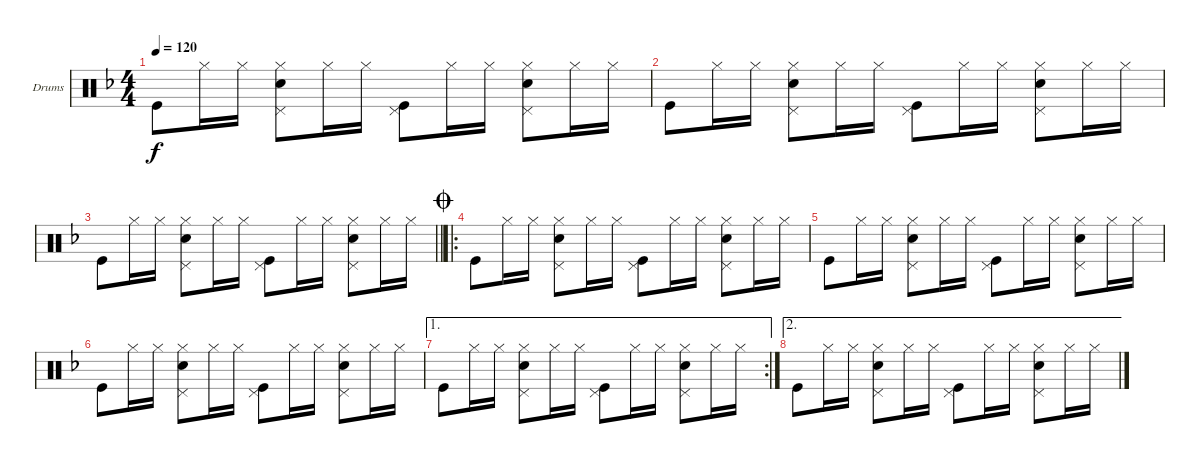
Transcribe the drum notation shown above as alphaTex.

\defaultSystemsLayout 4
\bracketExtendMode groupsimilarinstruments
\firstSystemTrackNameOrientation horizontal
\otherSystemsTrackNameOrientation horizontal
\track ("Drumkit" "Drums") {instrument percussion}
\staff {score}
\articulation defaults
\ts (4 4)
\tempo 120
\clef neutral
\ks f "Kick (hit)".8{dy f} "Hi-Hat (closed)".16 "Hi-Hat (closed)".16
("Snare (hit) 2" "Pedal Hi-Hat (hit)" "Hi-Hat (closed)").8 "Hi-Hat (closed)".16 "Hi-Hat (closed)".16 ("Kick (hit)" "Pedal Hi-Hat (hit)").8 "Hi-Hat (closed)".16 "Hi-Hat (closed)".16 ("Snare (hit) 2" "Pedal Hi-Hat (hit)" "Hi-Hat (closed)").8 "Hi-Hat (closed)".16 "Hi-Hat (closed)".16 |
"Kick (hit)".8 "Hi-Hat (closed)".16 "Hi-Hat (closed)".16 ("Snare (hit) 2" "Pedal Hi-Hat (hit)" "Hi-Hat (closed)").8 "Hi-Hat (closed)".16 "Hi-Hat (closed)".16 ("Kick (hit)" "Pedal Hi-Hat (hit)").8 "Hi-Hat (closed)".16 "Hi-Hat (closed)".16 ("Snare (hit) 2" "Pedal Hi-Hat (hit)" "Hi-Hat (closed)").8 "Hi-Hat (closed)".16 "Hi-Hat (closed)".16 |
\barLineRight lightlight "Kick (hit)".8 "Hi-Hat (closed)".16 "Hi-Hat (closed)".16
("Snare (hit) 2" "Pedal Hi-Hat (hit)" "Hi-Hat (closed)").8 "Hi-Hat (closed)".16 "Hi-Hat (closed)".16 ("Kick (hit)" "Pedal Hi-Hat (hit)").8 "Hi-Hat (closed)".16 "Hi-Hat (closed)".16 ("Snare (hit) 2" "Pedal Hi-Hat (hit)" "Hi-Hat (closed)").8 "Hi-Hat (closed)".16 "Hi-Hat (closed)".16 |
\ro
\jump coda "Kick (hit)".8 "Hi-Hat (closed)".16 "Hi-Hat (closed)".16
("Snare (hit) 2" "Pedal Hi-Hat (hit)" "Hi-Hat (closed)").8 "Hi-Hat (closed)".16 "Hi-Hat (closed)".16 ("Kick (hit)" "Pedal Hi-Hat (hit)").8 "Hi-Hat (closed)".16 "Hi-Hat (closed)".16 ("Snare (hit) 2" "Pedal Hi-Hat (hit)" "Hi-Hat (closed)").8 "Hi-Hat (closed)".16 "Hi-Hat (closed)".16 |
"Kick (hit)".8 "Hi-Hat (closed)".16 "Hi-Hat (closed)".16 ("Snare (hit) 2" "Pedal Hi-Hat (hit)" "Hi-Hat (closed)").8 "Hi-Hat (closed)".16 "Hi-Hat (closed)".16 ("Kick (hit)" "Pedal Hi-Hat (hit)").8 "Hi-Hat (closed)".16 "Hi-Hat (closed)".16 ("Snare (hit) 2" "Pedal Hi-Hat (hit)" "Hi-Hat (closed)").8 "Hi-Hat (closed)".16 "Hi-Hat (closed)".16 |
"Kick (hit)".8 "Hi-Hat (closed)".16 "Hi-Hat (closed)".16 ("Snare (hit) 2" "Pedal Hi-Hat (hit)" "Hi-Hat (closed)").8 "Hi-Hat (closed)".16 "Hi-Hat (closed)".16 ("Kick (hit)" "Pedal Hi-Hat (hit)").8 "Hi-Hat (closed)".16 "Hi-Hat (closed)".16 ("Snare (hit) 2" "Pedal Hi-Hat (hit)" "Hi-Hat (closed)").8 "Hi-Hat (closed)".16 "Hi-Hat (closed)".16 |
\ae 1
\rc 2 "Kick (hit)".8 "Hi-Hat (closed)".16 "Hi-Hat (closed)".16
("Snare (hit) 2" "Pedal Hi-Hat (hit)" "Hi-Hat (closed)").8 "Hi-Hat (closed)".16 "Hi-Hat (closed)".16 ("Kick (hit)" "Pedal Hi-Hat (hit)").8 "Hi-Hat (closed)".16 "Hi-Hat (closed)".16 ("Snare (hit) 2" "Pedal Hi-Hat (hit)" "Hi-Hat (closed)").8 "Hi-Hat (closed)".16 "Hi-Hat (closed)".16 |
\ae 2 "Kick (hit)".8 "Hi-Hat (closed)".16 "Hi-Hat (closed)".16
("Snare (hit) 2" "Pedal Hi-Hat (hit)" "Hi-Hat (closed)").8 "Hi-Hat (closed)".16 "Hi-Hat (closed)".16 ("Kick (hit)" "Pedal Hi-Hat (hit)").8 "Hi-Hat (closed)".16 "Hi-Hat (closed)".16 ("Snare (hit) 2" "Pedal Hi-Hat (hit)" "Hi-Hat (closed)").8 "Hi-Hat (closed)".16 "Hi-Hat (closed)".16
